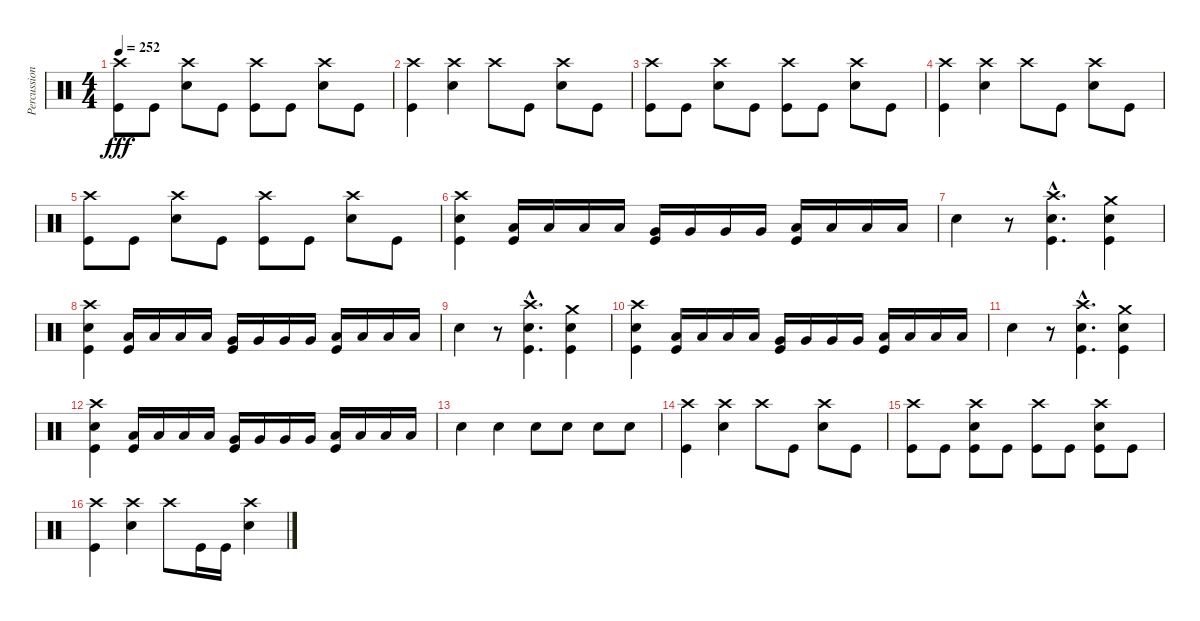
\track ("Percussion" "Percussion") {instrument percussion}
\staff {score}
\articulation defaults
\ts (4 4)
\tempo 252
\clef neutral
\ks c
("Crash high (hit)" "Kick (hit)").8{dy fff} "Kick (hit)".8 ("Crash high (hit)" "Snare (hit) 2").8 "Kick (hit)".8 ("Crash high (hit)" "Kick (hit)").8 "Kick (hit)".8 ("Crash high (hit)" "Snare (hit) 2").8 "Kick (hit)".8 |
("Crash high (hit)" "Kick (hit)").4 ("Crash high (hit)" "Snare (hit) 2").4 "Crash high (hit)".8 "Kick (hit)".8 ("Crash high (hit)" "Snare (hit) 2").8 "Kick (hit)".8 |
("Crash high (hit)" "Kick (hit)").8 "Kick (hit)".8 ("Crash high (hit)" "Snare (hit) 2").8 "Kick (hit)".8 ("Crash high (hit)" "Kick (hit)").8 "Kick (hit)".8 ("Crash high (hit)" "Snare (hit) 2").8 "Kick (hit)".8 |
("Crash high (hit)" "Kick (hit)").4 ("Crash high (hit)" "Snare (hit) 2").4 "Crash high (hit)".8 "Kick (hit)".8 ("Crash high (hit)" "Snare (hit) 2").8 "Kick (hit)".8 |
("Crash high (hit)" "Kick (hit)").8 "Kick (hit)".8 ("Crash high (hit)" "Snare (hit) 2").8 "Kick (hit)".8 ("Crash high (hit)" "Kick (hit)").8 "Kick (hit)".8 ("Crash high (hit)" "Snare (hit) 2").8 "Kick (hit)".8 |
("Crash high (hit)" "Snare (hit) 2" "Kick (hit)").4 ("Low Tom (hit)" "Kick (hit)").16 "Low Tom (hit)".16 "Low Tom (hit)".16 "Low Tom (hit)".16 ("Very Low Tom (hit)" "Kick (hit)").16 "Very Low Tom (hit)".16 "Very Low Tom (hit)".16 "Very Low Tom (hit)".16 ("Low Floor Tom (hit)" "Kick (hit)").16 "Low Floor Tom (hit)".16 "Low Floor Tom (hit)".16 "Low Floor Tom (hit)".16 |
"Snare (hit) 2".4 r.8 ("Crash high (hit)"{hac} "Snare (hit) 2"{hac} "Kick (hit)"{hac}).4{d} ("Crash medium (hit)" "Snare (hit) 2" "Kick (hit)").4 |
("Crash high (hit)" "Snare (hit) 2" "Kick (hit)").4 ("Low Tom (hit)" "Kick (hit)").16 "Low Tom (hit)".16 "Low Tom (hit)".16 "Low Tom (hit)".16 ("Very Low Tom (hit)" "Kick (hit)").16 "Very Low Tom (hit)".16 "Very Low Tom (hit)".16 "Very Low Tom (hit)".16 ("Low Floor Tom (hit)" "Kick (hit)").16 "Low Floor Tom (hit)".16 "Low Floor Tom (hit)".16 "Low Floor Tom (hit)".16 |
"Snare (hit) 2".4 r.8 ("Crash high (hit)"{hac} "Snare (hit) 2"{hac} "Kick (hit)"{hac}).4{d} ("Crash medium (hit)" "Snare (hit) 2" "Kick (hit)").4 |
("Crash high (hit)" "Snare (hit) 2" "Kick (hit)").4 ("Low Tom (hit)" "Kick (hit)").16 "Low Tom (hit)".16 "Low Tom (hit)".16 "Low Tom (hit)".16 ("Very Low Tom (hit)" "Kick (hit)").16 "Very Low Tom (hit)".16 "Very Low Tom (hit)".16 "Very Low Tom (hit)".16 ("Low Floor Tom (hit)" "Kick (hit)").16 "Low Floor Tom (hit)".16 "Low Floor Tom (hit)".16 "Low Floor Tom (hit)".16 |
"Snare (hit) 2".4 r.8 ("Crash high (hit)"{hac} "Snare (hit) 2"{hac} "Kick (hit)"{hac}).4{d} ("Crash medium (hit)" "Snare (hit) 2" "Kick (hit)").4 |
("Crash high (hit)" "Snare (hit) 2" "Kick (hit)").4 ("Low Tom (hit)" "Kick (hit)").16 "Low Tom (hit)".16 "Low Tom (hit)".16 "Low Tom (hit)".16 ("Very Low Tom (hit)" "Kick (hit)").16 "Very Low Tom (hit)".16 "Very Low Tom (hit)".16 "Very Low Tom (hit)".16 ("Low Floor Tom (hit)" "Kick (hit)").16 "Low Floor Tom (hit)".16 "Low Floor Tom (hit)".16 "Low Floor Tom (hit)".16 |
"Snare (hit) 2".4 "Snare (hit) 2".4 "Snare (hit) 2".8 "Snare (hit) 2".8 "Snare (hit) 2".8 "Snare (hit) 2".8 |
("Crash high (hit)" "Kick (hit)").4 ("Crash high (hit)" "Snare (hit) 2").4 "Crash high (hit)".8 "Kick (hit)".8 ("Crash high (hit)" "Snare (hit) 2").8 "Kick (hit)".8 |
("Crash high (hit)" "Kick (hit)").8 "Kick (hit)".8 ("Crash high (hit)" "Snare (hit) 2" "Kick (hit)").8 "Kick (hit)".8 ("Crash high (hit)" "Kick (hit)").8 "Kick (hit)".8 ("Crash high (hit)" "Snare (hit) 2" "Kick (hit)").8 "Kick (hit)".8 |
("Crash high (hit)" "Kick (hit)").4 ("Crash high (hit)" "Snare (hit) 2").4 "Crash high (hit)".8 "Kick (hit)".16 "Kick (hit)".16 ("Crash high (hit)" "Snare (hit) 2").4
